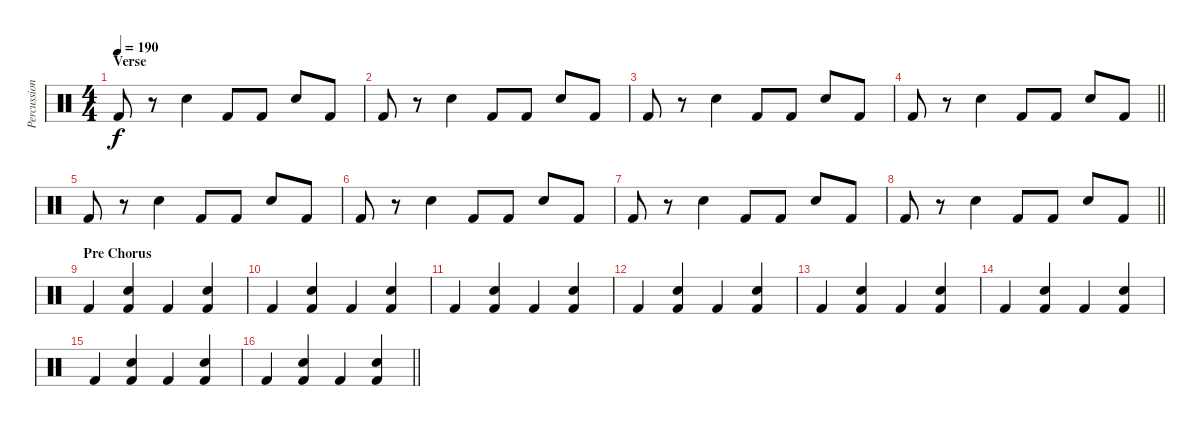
\track ("Percussion" "Percussion") {instrument percussion}
\staff {score}
\articulation defaults
\ts (4 4)
\section ("" "Verse")
\tempo 190
\clef neutral
\ks c "Kick (hit) 2".8{dy f}
r.8 "Electric Snare (hit)".4 "Kick (hit) 2".8 "Kick (hit) 2".8 "Electric Snare (hit)".8 "Kick (hit) 2".8 |
"Kick (hit) 2".8 r.8 "Electric Snare (hit)".4 "Kick (hit) 2".8 "Kick (hit) 2".8 "Electric Snare (hit)".8 "Kick (hit) 2".8 |
"Kick (hit) 2".8 r.8 "Electric Snare (hit)".4 "Kick (hit) 2".8 "Kick (hit) 2".8 "Electric Snare (hit)".8 "Kick (hit) 2".8 |
\barLineRight lightlight "Kick (hit) 2".8
r.8 "Electric Snare (hit)".4 "Kick (hit) 2".8 "Kick (hit) 2".8 "Electric Snare (hit)".8 "Kick (hit) 2".8 |
"Kick (hit) 2".8 r.8 "Electric Snare (hit)".4 "Kick (hit) 2".8 "Kick (hit) 2".8 "Electric Snare (hit)".8 "Kick (hit) 2".8 |
"Kick (hit) 2".8 r.8 "Electric Snare (hit)".4 "Kick (hit) 2".8 "Kick (hit) 2".8 "Electric Snare (hit)".8 "Kick (hit) 2".8 |
"Kick (hit) 2".8 r.8 "Electric Snare (hit)".4 "Kick (hit) 2".8 "Kick (hit) 2".8 "Electric Snare (hit)".8 "Kick (hit) 2".8 |
\barLineRight lightlight "Kick (hit) 2".8
r.8 "Electric Snare (hit)".4 "Kick (hit) 2".8 "Kick (hit) 2".8 "Electric Snare (hit)".8 "Kick (hit) 2".8 |
\section ("" "Pre Chorus")
"Kick (hit) 2".4 ("Electric Snare (hit)" "Kick (hit) 2").4 "Kick (hit) 2".4 ("Electric Snare (hit)" "Kick (hit) 2").4 |
"Kick (hit) 2".4 ("Electric Snare (hit)" "Kick (hit) 2").4 "Kick (hit) 2".4 ("Electric Snare (hit)" "Kick (hit) 2").4 |
"Kick (hit) 2".4 ("Electric Snare (hit)" "Kick (hit) 2").4 "Kick (hit) 2".4 ("Electric Snare (hit)" "Kick (hit) 2").4 |
"Kick (hit) 2".4 ("Electric Snare (hit)" "Kick (hit) 2").4 "Kick (hit) 2".4 ("Electric Snare (hit)" "Kick (hit) 2").4 |
"Kick (hit) 2".4 ("Electric Snare (hit)" "Kick (hit) 2").4 "Kick (hit) 2".4 ("Electric Snare (hit)" "Kick (hit) 2").4 |
"Kick (hit) 2".4 ("Electric Snare (hit)" "Kick (hit) 2").4 "Kick (hit) 2".4 ("Electric Snare (hit)" "Kick (hit) 2").4 |
"Kick (hit) 2".4 ("Electric Snare (hit)" "Kick (hit) 2").4 "Kick (hit) 2".4 ("Electric Snare (hit)" "Kick (hit) 2").4 |
\barLineRight lightlight "Kick (hit) 2".4
("Electric Snare (hit)" "Kick (hit) 2").4 "Kick (hit) 2".4 ("Electric Snare (hit)" "Kick (hit) 2").4
